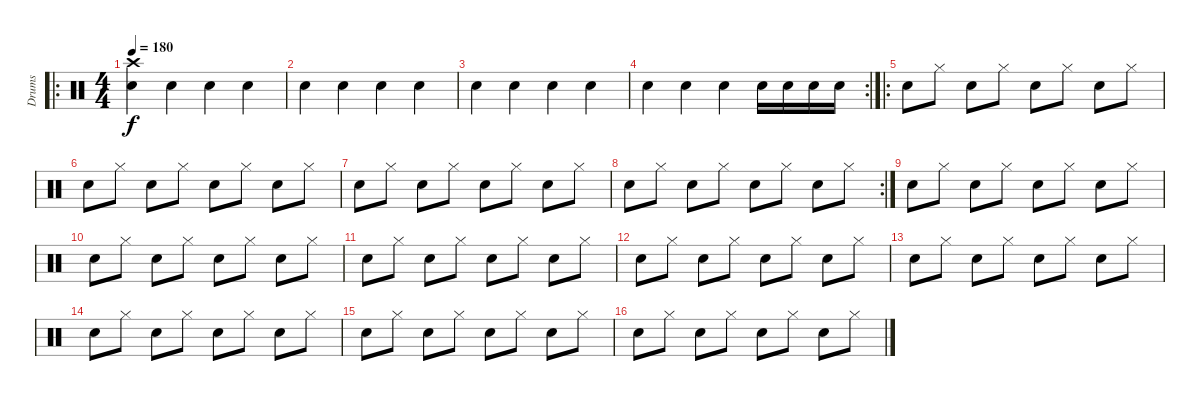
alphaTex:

\track ("Drums" "Drums") {instrument percussion}
\staff {score}
\articulation defaults
\ro
\ts (4 4)
\tempo 180
\clef neutral
\ks c
("Crash high (hit)" "Snare (hit) 2").4{dy f} "Snare (hit) 2".4 "Snare (hit) 2".4 "Snare (hit) 2".4 |
"Snare (hit) 2".4 "Snare (hit) 2".4 "Snare (hit) 2".4 "Snare (hit) 2".4 |
"Snare (hit) 2".4 "Snare (hit) 2".4 "Snare (hit) 2".4 "Snare (hit) 2".4 |
\rc 2 "Snare (hit) 2".4 "Snare (hit) 2".4 "Snare (hit) 2".4 "Snare (hit) 2".16 "Snare (hit) 2".16 "Snare (hit) 2".16 "Snare (hit) 2".16
|
\ro "Snare (hit) 2".8 "Hi-Hat (closed)".8 "Snare (hit) 2".8 "Hi-Hat (closed)".8 "Snare (hit) 2".8 "Hi-Hat (closed)".8 "Snare (hit) 2".8 "Hi-Hat (closed)".8
|
"Snare (hit) 2".8 "Hi-Hat (closed)".8 "Snare (hit) 2".8 "Hi-Hat (closed)".8 "Snare (hit) 2".8 "Hi-Hat (closed)".8 "Snare (hit) 2".8 "Hi-Hat (closed)".8 |
"Snare (hit) 2".8 "Hi-Hat (closed)".8 "Snare (hit) 2".8 "Hi-Hat (closed)".8 "Snare (hit) 2".8 "Hi-Hat (closed)".8 "Snare (hit) 2".8 "Hi-Hat (closed)".8 |
\rc 2 "Snare (hit) 2".8 "Hi-Hat (closed)".8 "Snare (hit) 2".8 "Hi-Hat (closed)".8 "Snare (hit) 2".8 "Hi-Hat (closed)".8 "Snare (hit) 2".8 "Hi-Hat (closed)".8
|
"Snare (hit) 2".8 "Hi-Hat (closed)".8 "Snare (hit) 2".8 "Hi-Hat (closed)".8 "Snare (hit) 2".8 "Hi-Hat (closed)".8 "Snare (hit) 2".8 "Hi-Hat (closed)".8 |
"Snare (hit) 2".8 "Hi-Hat (closed)".8 "Snare (hit) 2".8 "Hi-Hat (closed)".8 "Snare (hit) 2".8 "Hi-Hat (closed)".8 "Snare (hit) 2".8 "Hi-Hat (closed)".8 |
"Snare (hit) 2".8 "Hi-Hat (closed)".8 "Snare (hit) 2".8 "Hi-Hat (closed)".8 "Snare (hit) 2".8 "Hi-Hat (closed)".8 "Snare (hit) 2".8 "Hi-Hat (closed)".8 |
"Snare (hit) 2".8 "Hi-Hat (closed)".8 "Snare (hit) 2".8 "Hi-Hat (closed)".8 "Snare (hit) 2".8 "Hi-Hat (closed)".8 "Snare (hit) 2".8 "Hi-Hat (closed)".8 |
"Snare (hit) 2".8 "Hi-Hat (closed)".8 "Snare (hit) 2".8 "Hi-Hat (closed)".8 "Snare (hit) 2".8 "Hi-Hat (closed)".8 "Snare (hit) 2".8 "Hi-Hat (closed)".8 |
"Snare (hit) 2".8 "Hi-Hat (closed)".8 "Snare (hit) 2".8 "Hi-Hat (closed)".8 "Snare (hit) 2".8 "Hi-Hat (closed)".8 "Snare (hit) 2".8 "Hi-Hat (closed)".8 |
"Snare (hit) 2".8 "Hi-Hat (closed)".8 "Snare (hit) 2".8 "Hi-Hat (closed)".8 "Snare (hit) 2".8 "Hi-Hat (closed)".8 "Snare (hit) 2".8 "Hi-Hat (closed)".8 |
"Snare (hit) 2".8 "Hi-Hat (closed)".8 "Snare (hit) 2".8 "Hi-Hat (closed)".8 "Snare (hit) 2".8 "Hi-Hat (closed)".8 "Snare (hit) 2".8 "Hi-Hat (closed)".8
